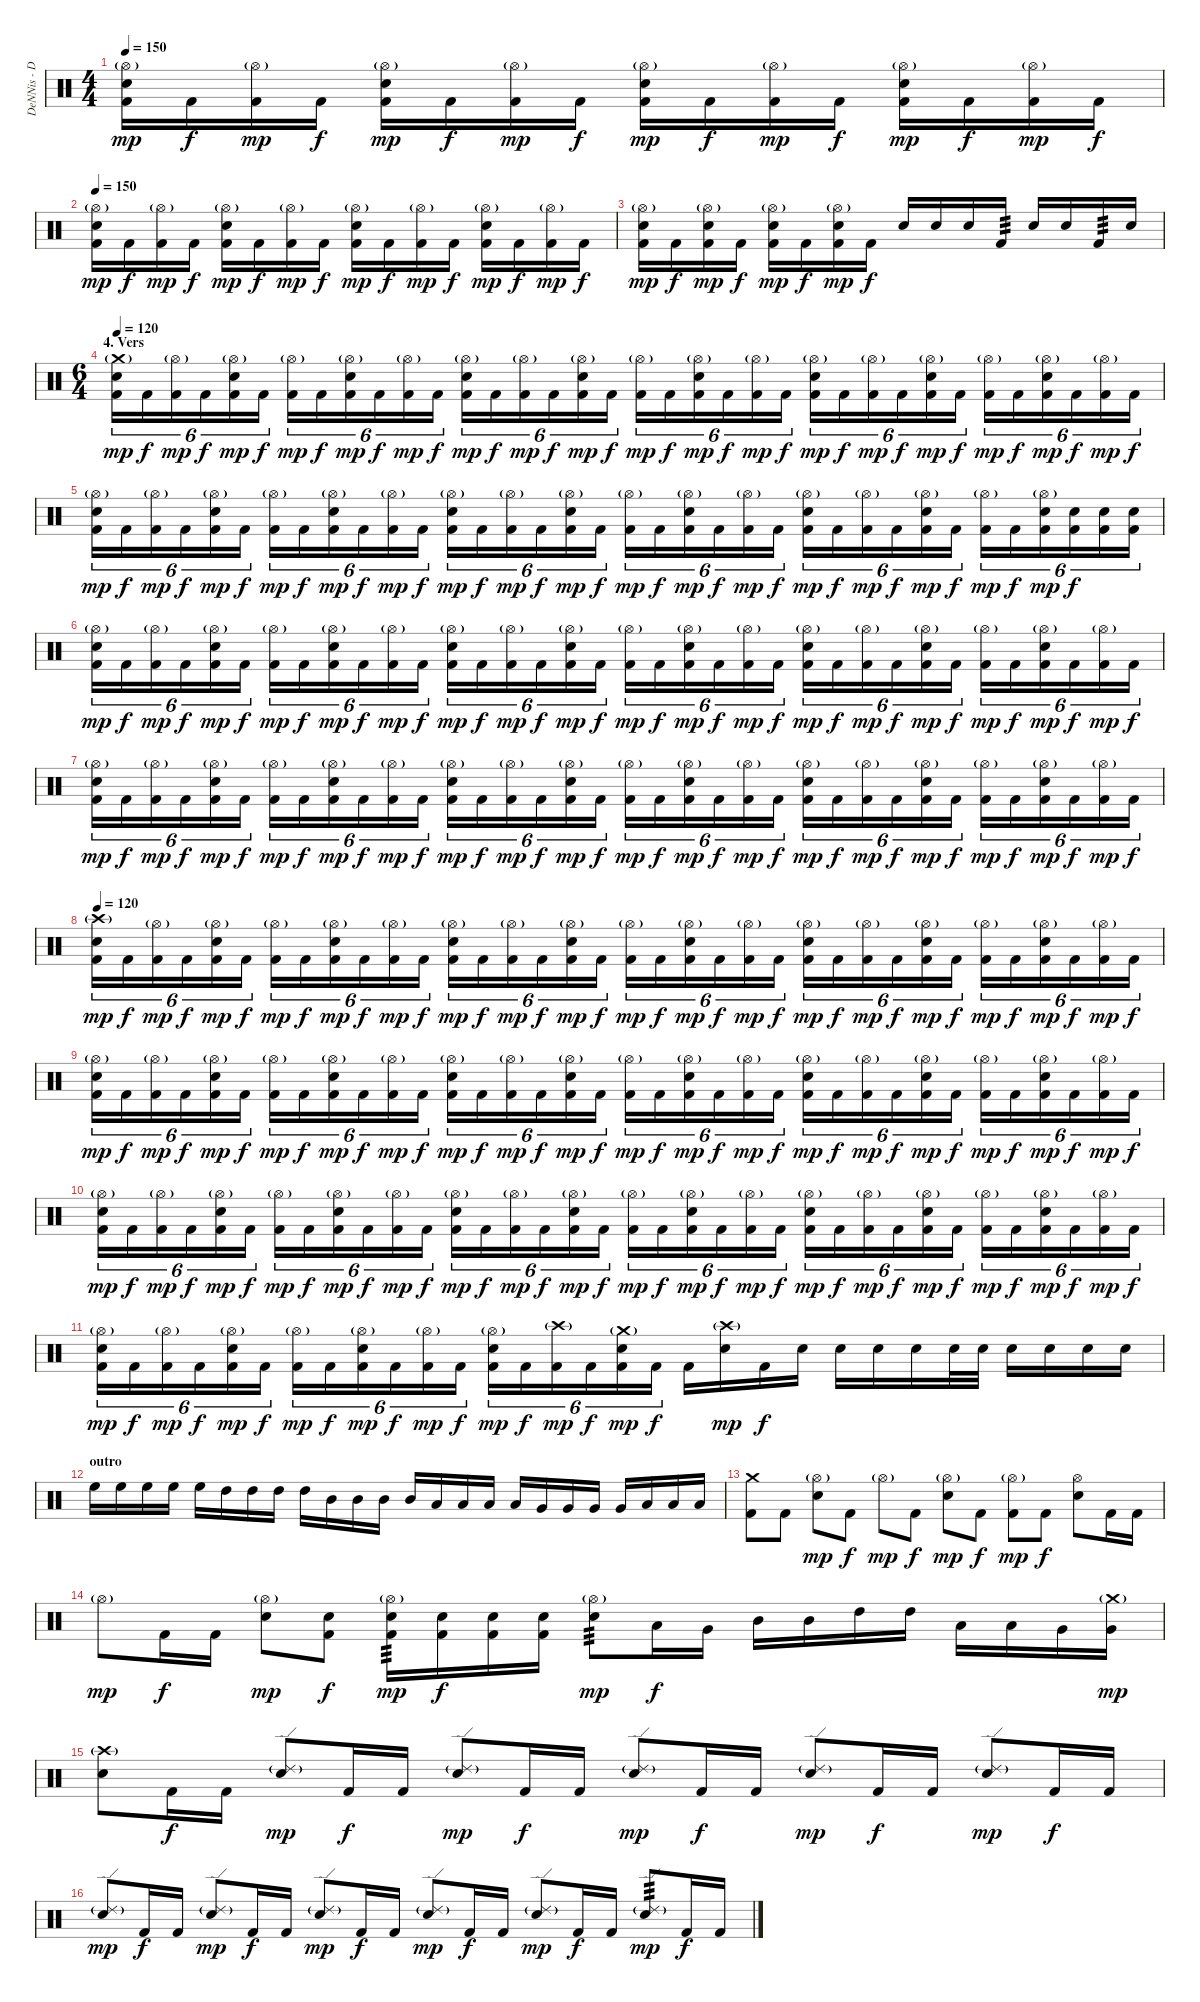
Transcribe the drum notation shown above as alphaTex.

\track ("DeNNis - Drums" "DeNNis - D") {instrument percussion}
\staff {score}
\articulation defaults
\ts (4 4)
\tempo 150
\clef neutral
\ks c
("Hi-Hat (open)"{g} "Electric Snare (hit)" "Kick (hit) 2").16{dy mp} "Kick (hit) 2".16{dy f} ("Hi-Hat (open)"{g} "Kick (hit) 2").16{dy mp} "Kick (hit) 2".16{dy f} ("Hi-Hat (open)"{g} "Electric Snare (hit)" "Kick (hit) 2").16{dy mp} "Kick (hit) 2".16{dy f} ("Hi-Hat (open)"{g} "Kick (hit) 2").16{dy mp} "Kick (hit) 2".16{dy f} ("Hi-Hat (open)"{g} "Electric Snare (hit)" "Kick (hit) 2").16{dy mp} "Kick (hit) 2".16{dy f} ("Hi-Hat (open)"{g} "Kick (hit) 2").16{dy mp} "Kick (hit) 2".16{dy f} ("Hi-Hat (open)"{g} "Electric Snare (hit)" "Kick (hit) 2").16{dy mp} "Kick (hit) 2".16{dy f} ("Hi-Hat (open)"{g} "Kick (hit) 2").16{dy mp} "Kick (hit) 2".16{dy f} |
\tempo 150
("Hi-Hat (open)"{g} "Electric Snare (hit)" "Kick (hit) 2").16{dy mp} "Kick (hit) 2".16{dy f} ("Hi-Hat (open)"{g} "Kick (hit) 2").16{dy mp} "Kick (hit) 2".16{dy f} ("Hi-Hat (open)"{g} "Electric Snare (hit)" "Kick (hit) 2").16{dy mp} "Kick (hit) 2".16{dy f} ("Hi-Hat (open)"{g} "Kick (hit) 2").16{dy mp} "Kick (hit) 2".16{dy f} ("Hi-Hat (open)"{g} "Electric Snare (hit)" "Kick (hit) 2").16{dy mp} "Kick (hit) 2".16{dy f} ("Hi-Hat (open)"{g} "Kick (hit) 2").16{dy mp} "Kick (hit) 2".16{dy f} ("Hi-Hat (open)"{g} "Electric Snare (hit)" "Kick (hit) 2").16{dy mp} "Kick (hit) 2".16{dy f} ("Hi-Hat (open)"{g} "Kick (hit) 2").16{dy mp} "Kick (hit) 2".16{dy f} |
("Hi-Hat (open)"{g} "Electric Snare (hit)" "Kick (hit) 2").16{dy mp} "Kick (hit) 2".16{dy f} ("Hi-Hat (open)"{g} "Electric Snare (hit)" "Kick (hit) 2").16{dy mp} "Kick (hit) 2".16{dy f} ("Hi-Hat (open)"{g} "Electric Snare (hit)" "Kick (hit) 2").16{dy mp} "Kick (hit) 2".16{dy f} ("Hi-Hat (open)"{g} "Electric Snare (hit)" "Kick (hit) 2").16{dy mp} "Kick (hit) 2".16{dy f} "Electric Snare (hit)".16 "Electric Snare (hit)".16 "Electric Snare (hit)".16 "Kick (hit) 2".16{tp 3} "Electric Snare (hit)".16 "Electric Snare (hit)".16 "Kick (hit) 2".16{tp 3} "Electric Snare (hit)".16 |
\ts (6 4)
\section ("" "4. Vers")
\tempo 120
("Crash medium (hit)"{g} "Electric Snare (hit)" "Kick (hit) 2").16{tu (6 4) dy mp} "Kick (hit) 2".16{tu (6 4) dy f} ("Hi-Hat (open)"{g} "Kick (hit) 2").16{tu (6 4) dy mp} "Kick (hit) 2".16{tu (6 4) dy f} ("Hi-Hat (open)"{g} "Electric Snare (hit)" "Kick (hit) 2").16{tu (6 4) dy mp} "Kick (hit) 2".16{tu (6 4) dy f} ("Hi-Hat (open)"{g} "Kick (hit) 2").16{tu (6 4) dy mp} "Kick (hit) 2".16{tu (6 4) dy f} ("Hi-Hat (open)"{g} "Electric Snare (hit)" "Kick (hit) 2").16{tu (6 4) dy mp} "Kick (hit) 2".16{tu (6 4) dy f} ("Hi-Hat (open)"{g} "Kick (hit) 2").16{tu (6 4) dy mp} "Kick (hit) 2".16{tu (6 4) dy f} ("Hi-Hat (open)"{g} "Electric Snare (hit)" "Kick (hit) 2").16{tu (6 4) dy mp} "Kick (hit) 2".16{tu (6 4) dy f} ("Hi-Hat (open)"{g} "Kick (hit) 2").16{tu (6 4) dy mp} "Kick (hit) 2".16{tu (6 4) dy f} ("Hi-Hat (open)"{g} "Electric Snare (hit)" "Kick (hit) 2").16{tu (6 4) dy mp} "Kick (hit) 2".16{tu (6 4) dy f} ("Hi-Hat (open)"{g} "Kick (hit) 2").16{tu (6 4) dy mp} "Kick (hit) 2".16{tu (6 4) dy f} ("Hi-Hat (open)"{g} "Electric Snare (hit)" "Kick (hit) 2").16{tu (6 4) dy mp} "Kick (hit) 2".16{tu (6 4) dy f} ("Hi-Hat (open)"{g} "Kick (hit) 2").16{tu (6 4) dy mp} "Kick (hit) 2".16{tu (6 4) dy f} ("Hi-Hat (open)"{g} "Electric Snare (hit)" "Kick (hit) 2").16{tu (6 4) dy mp} "Kick (hit) 2".16{tu (6 4) dy f} ("Hi-Hat (open)"{g} "Kick (hit) 2").16{tu (6 4) dy mp} "Kick (hit) 2".16{tu (6 4) dy f} ("Hi-Hat (open)"{g} "Electric Snare (hit)" "Kick (hit) 2").16{tu (6 4) dy mp} "Kick (hit) 2".16{tu (6 4) dy f} ("Hi-Hat (open)"{g} "Kick (hit) 2").16{tu (6 4) dy mp} "Kick (hit) 2".16{tu (6 4) dy f} ("Hi-Hat (open)"{g} "Electric Snare (hit)" "Kick (hit) 2").16{tu (6 4) dy mp} "Kick (hit) 2".16{tu (6 4) dy f} ("Hi-Hat (open)"{g} "Kick (hit) 2").16{tu (6 4) dy mp} "Kick (hit) 2".16{tu (6 4) dy f} |
("Hi-Hat (open)"{g} "Electric Snare (hit)" "Kick (hit) 2").16{tu (6 4) dy mp} "Kick (hit) 2".16{tu (6 4) dy f} ("Hi-Hat (open)"{g} "Kick (hit) 2").16{tu (6 4) dy mp} "Kick (hit) 2".16{tu (6 4) dy f} ("Hi-Hat (open)"{g} "Electric Snare (hit)" "Kick (hit) 2").16{tu (6 4) dy mp} "Kick (hit) 2".16{tu (6 4) dy f} ("Hi-Hat (open)"{g} "Kick (hit) 2").16{tu (6 4) dy mp} "Kick (hit) 2".16{tu (6 4) dy f} ("Hi-Hat (open)"{g} "Electric Snare (hit)" "Kick (hit) 2").16{tu (6 4) dy mp} "Kick (hit) 2".16{tu (6 4) dy f} ("Hi-Hat (open)"{g} "Kick (hit) 2").16{tu (6 4) dy mp} "Kick (hit) 2".16{tu (6 4) dy f} ("Hi-Hat (open)"{g} "Electric Snare (hit)" "Kick (hit) 2").16{tu (6 4) dy mp} "Kick (hit) 2".16{tu (6 4) dy f} ("Hi-Hat (open)"{g} "Kick (hit) 2").16{tu (6 4) dy mp} "Kick (hit) 2".16{tu (6 4) dy f} ("Hi-Hat (open)"{g} "Electric Snare (hit)" "Kick (hit) 2").16{tu (6 4) dy mp} "Kick (hit) 2".16{tu (6 4) dy f} ("Hi-Hat (open)"{g} "Kick (hit) 2").16{tu (6 4) dy mp} "Kick (hit) 2".16{tu (6 4) dy f} ("Hi-Hat (open)"{g} "Electric Snare (hit)" "Kick (hit) 2").16{tu (6 4) dy mp} "Kick (hit) 2".16{tu (6 4) dy f} ("Hi-Hat (open)"{g} "Kick (hit) 2").16{tu (6 4) dy mp} "Kick (hit) 2".16{tu (6 4) dy f} ("Hi-Hat (open)"{g} "Electric Snare (hit)" "Kick (hit) 2").16{tu (6 4) dy mp} "Kick (hit) 2".16{tu (6 4) dy f} ("Hi-Hat (open)"{g} "Kick (hit) 2").16{tu (6 4) dy mp} "Kick (hit) 2".16{tu (6 4) dy f} ("Hi-Hat (open)"{g} "Electric Snare (hit)" "Kick (hit) 2").16{tu (6 4) dy mp} "Kick (hit) 2".16{tu (6 4) dy f} ("Hi-Hat (open)"{g} "Kick (hit) 2").16{tu (6 4) dy mp} "Kick (hit) 2".16{tu (6 4) dy f} ("Hi-Hat (open)"{g} "Electric Snare (hit)" "Kick (hit) 2").16{tu (6 4) dy mp} ("Electric Snare (hit)" "Kick (hit) 2").16{tu (6 4) dy f} ("Electric Snare (hit)" "Kick (hit) 2").16{tu (6 4)} ("Electric Snare (hit)" "Kick (hit) 2").16{tu (6 4)} |
("Hi-Hat (open)"{g} "Electric Snare (hit)" "Kick (hit) 2").16{tu (6 4) dy mp} "Kick (hit) 2".16{tu (6 4) dy f} ("Hi-Hat (open)"{g} "Kick (hit) 2").16{tu (6 4) dy mp} "Kick (hit) 2".16{tu (6 4) dy f} ("Hi-Hat (open)"{g} "Electric Snare (hit)" "Kick (hit) 2").16{tu (6 4) dy mp} "Kick (hit) 2".16{tu (6 4) dy f} ("Hi-Hat (open)"{g} "Kick (hit) 2").16{tu (6 4) dy mp} "Kick (hit) 2".16{tu (6 4) dy f} ("Hi-Hat (open)"{g} "Electric Snare (hit)" "Kick (hit) 2").16{tu (6 4) dy mp} "Kick (hit) 2".16{tu (6 4) dy f} ("Hi-Hat (open)"{g} "Kick (hit) 2").16{tu (6 4) dy mp} "Kick (hit) 2".16{tu (6 4) dy f} ("Hi-Hat (open)"{g} "Electric Snare (hit)" "Kick (hit) 2").16{tu (6 4) dy mp} "Kick (hit) 2".16{tu (6 4) dy f} ("Hi-Hat (open)"{g} "Kick (hit) 2").16{tu (6 4) dy mp} "Kick (hit) 2".16{tu (6 4) dy f} ("Hi-Hat (open)"{g} "Electric Snare (hit)" "Kick (hit) 2").16{tu (6 4) dy mp} "Kick (hit) 2".16{tu (6 4) dy f} ("Hi-Hat (open)"{g} "Kick (hit) 2").16{tu (6 4) dy mp} "Kick (hit) 2".16{tu (6 4) dy f} ("Hi-Hat (open)"{g} "Electric Snare (hit)" "Kick (hit) 2").16{tu (6 4) dy mp} "Kick (hit) 2".16{tu (6 4) dy f} ("Hi-Hat (open)"{g} "Kick (hit) 2").16{tu (6 4) dy mp} "Kick (hit) 2".16{tu (6 4) dy f} ("Hi-Hat (open)"{g} "Electric Snare (hit)" "Kick (hit) 2").16{tu (6 4) dy mp} "Kick (hit) 2".16{tu (6 4) dy f} ("Hi-Hat (open)"{g} "Kick (hit) 2").16{tu (6 4) dy mp} "Kick (hit) 2".16{tu (6 4) dy f} ("Hi-Hat (open)"{g} "Electric Snare (hit)" "Kick (hit) 2").16{tu (6 4) dy mp} "Kick (hit) 2".16{tu (6 4) dy f} ("Hi-Hat (open)"{g} "Kick (hit) 2").16{tu (6 4) dy mp} "Kick (hit) 2".16{tu (6 4) dy f} ("Hi-Hat (open)"{g} "Electric Snare (hit)" "Kick (hit) 2").16{tu (6 4) dy mp} "Kick (hit) 2".16{tu (6 4) dy f} ("Hi-Hat (open)"{g} "Kick (hit) 2").16{tu (6 4) dy mp} "Kick (hit) 2".16{tu (6 4) dy f} |
("Hi-Hat (open)"{g} "Electric Snare (hit)" "Kick (hit) 2").16{tu (6 4) dy mp} "Kick (hit) 2".16{tu (6 4) dy f} ("Hi-Hat (open)"{g} "Kick (hit) 2").16{tu (6 4) dy mp} "Kick (hit) 2".16{tu (6 4) dy f} ("Hi-Hat (open)"{g} "Electric Snare (hit)" "Kick (hit) 2").16{tu (6 4) dy mp} "Kick (hit) 2".16{tu (6 4) dy f} ("Hi-Hat (open)"{g} "Kick (hit) 2").16{tu (6 4) dy mp} "Kick (hit) 2".16{tu (6 4) dy f} ("Hi-Hat (open)"{g} "Electric Snare (hit)" "Kick (hit) 2").16{tu (6 4) dy mp} "Kick (hit) 2".16{tu (6 4) dy f} ("Hi-Hat (open)"{g} "Kick (hit) 2").16{tu (6 4) dy mp} "Kick (hit) 2".16{tu (6 4) dy f} ("Hi-Hat (open)"{g} "Electric Snare (hit)" "Kick (hit) 2").16{tu (6 4) dy mp} "Kick (hit) 2".16{tu (6 4) dy f} ("Hi-Hat (open)"{g} "Kick (hit) 2").16{tu (6 4) dy mp} "Kick (hit) 2".16{tu (6 4) dy f} ("Hi-Hat (open)"{g} "Electric Snare (hit)" "Kick (hit) 2").16{tu (6 4) dy mp} "Kick (hit) 2".16{tu (6 4) dy f} ("Hi-Hat (open)"{g} "Kick (hit) 2").16{tu (6 4) dy mp} "Kick (hit) 2".16{tu (6 4) dy f} ("Hi-Hat (open)"{g} "Electric Snare (hit)" "Kick (hit) 2").16{tu (6 4) dy mp} "Kick (hit) 2".16{tu (6 4) dy f} ("Hi-Hat (open)"{g} "Kick (hit) 2").16{tu (6 4) dy mp} "Kick (hit) 2".16{tu (6 4) dy f} ("Hi-Hat (open)"{g} "Electric Snare (hit)" "Kick (hit) 2").16{tu (6 4) dy mp} "Kick (hit) 2".16{tu (6 4) dy f} ("Hi-Hat (open)"{g} "Kick (hit) 2").16{tu (6 4) dy mp} "Kick (hit) 2".16{tu (6 4) dy f} ("Hi-Hat (open)"{g} "Electric Snare (hit)" "Kick (hit) 2").16{tu (6 4) dy mp} "Kick (hit) 2".16{tu (6 4) dy f} ("Hi-Hat (open)"{g} "Kick (hit) 2").16{tu (6 4) dy mp} "Kick (hit) 2".16{tu (6 4) dy f} ("Hi-Hat (open)"{g} "Electric Snare (hit)" "Kick (hit) 2").16{tu (6 4) dy mp} "Kick (hit) 2".16{tu (6 4) dy f} ("Hi-Hat (open)"{g} "Kick (hit) 2").16{tu (6 4) dy mp} "Kick (hit) 2".16{tu (6 4) dy f} |
\tempo 120
("Crash high (hit)"{g} "Electric Snare (hit)" "Kick (hit) 2").16{tu (6 4) dy mp} "Kick (hit) 2".16{tu (6 4) dy f} ("Hi-Hat (open)"{g} "Kick (hit) 2").16{tu (6 4) dy mp} "Kick (hit) 2".16{tu (6 4) dy f} ("Hi-Hat (open)"{g} "Electric Snare (hit)" "Kick (hit) 2").16{tu (6 4) dy mp} "Kick (hit) 2".16{tu (6 4) dy f} ("Hi-Hat (open)"{g} "Kick (hit) 2").16{tu (6 4) dy mp} "Kick (hit) 2".16{tu (6 4) dy f} ("Hi-Hat (open)"{g} "Electric Snare (hit)" "Kick (hit) 2").16{tu (6 4) dy mp} "Kick (hit) 2".16{tu (6 4) dy f} ("Hi-Hat (open)"{g} "Kick (hit) 2").16{tu (6 4) dy mp} "Kick (hit) 2".16{tu (6 4) dy f} ("Hi-Hat (open)"{g} "Electric Snare (hit)" "Kick (hit) 2").16{tu (6 4) dy mp} "Kick (hit) 2".16{tu (6 4) dy f} ("Hi-Hat (open)"{g} "Kick (hit) 2").16{tu (6 4) dy mp} "Kick (hit) 2".16{tu (6 4) dy f} ("Hi-Hat (open)"{g} "Electric Snare (hit)" "Kick (hit) 2").16{tu (6 4) dy mp} "Kick (hit) 2".16{tu (6 4) dy f} ("Hi-Hat (open)"{g} "Kick (hit) 2").16{tu (6 4) dy mp} "Kick (hit) 2".16{tu (6 4) dy f} ("Hi-Hat (open)"{g} "Electric Snare (hit)" "Kick (hit) 2").16{tu (6 4) dy mp} "Kick (hit) 2".16{tu (6 4) dy f} ("Hi-Hat (open)"{g} "Kick (hit) 2").16{tu (6 4) dy mp} "Kick (hit) 2".16{tu (6 4) dy f} ("Hi-Hat (open)"{g} "Electric Snare (hit)" "Kick (hit) 2").16{tu (6 4) dy mp} "Kick (hit) 2".16{tu (6 4) dy f} ("Hi-Hat (open)"{g} "Kick (hit) 2").16{tu (6 4) dy mp} "Kick (hit) 2".16{tu (6 4) dy f} ("Hi-Hat (open)"{g} "Electric Snare (hit)" "Kick (hit) 2").16{tu (6 4) dy mp} "Kick (hit) 2".16{tu (6 4) dy f} ("Hi-Hat (open)"{g} "Kick (hit) 2").16{tu (6 4) dy mp} "Kick (hit) 2".16{tu (6 4) dy f} ("Hi-Hat (open)"{g} "Electric Snare (hit)" "Kick (hit) 2").16{tu (6 4) dy mp} "Kick (hit) 2".16{tu (6 4) dy f} ("Hi-Hat (open)"{g} "Kick (hit) 2").16{tu (6 4) dy mp} "Kick (hit) 2".16{tu (6 4) dy f} |
("Hi-Hat (open)"{g} "Electric Snare (hit)" "Kick (hit) 2").16{tu (6 4) dy mp} "Kick (hit) 2".16{tu (6 4) dy f} ("Hi-Hat (open)"{g} "Kick (hit) 2").16{tu (6 4) dy mp} "Kick (hit) 2".16{tu (6 4) dy f} ("Hi-Hat (open)"{g} "Electric Snare (hit)" "Kick (hit) 2").16{tu (6 4) dy mp} "Kick (hit) 2".16{tu (6 4) dy f} ("Hi-Hat (open)"{g} "Kick (hit) 2").16{tu (6 4) dy mp} "Kick (hit) 2".16{tu (6 4) dy f} ("Hi-Hat (open)"{g} "Electric Snare (hit)" "Kick (hit) 2").16{tu (6 4) dy mp} "Kick (hit) 2".16{tu (6 4) dy f} ("Hi-Hat (open)"{g} "Kick (hit) 2").16{tu (6 4) dy mp} "Kick (hit) 2".16{tu (6 4) dy f} ("Hi-Hat (open)"{g} "Electric Snare (hit)" "Kick (hit) 2").16{tu (6 4) dy mp} "Kick (hit) 2".16{tu (6 4) dy f} ("Hi-Hat (open)"{g} "Kick (hit) 2").16{tu (6 4) dy mp} "Kick (hit) 2".16{tu (6 4) dy f} ("Hi-Hat (open)"{g} "Electric Snare (hit)" "Kick (hit) 2").16{tu (6 4) dy mp} "Kick (hit) 2".16{tu (6 4) dy f} ("Hi-Hat (open)"{g} "Kick (hit) 2").16{tu (6 4) dy mp} "Kick (hit) 2".16{tu (6 4) dy f} ("Hi-Hat (open)"{g} "Electric Snare (hit)" "Kick (hit) 2").16{tu (6 4) dy mp} "Kick (hit) 2".16{tu (6 4) dy f} ("Hi-Hat (open)"{g} "Kick (hit) 2").16{tu (6 4) dy mp} "Kick (hit) 2".16{tu (6 4) dy f} ("Hi-Hat (open)"{g} "Electric Snare (hit)" "Kick (hit) 2").16{tu (6 4) dy mp} "Kick (hit) 2".16{tu (6 4) dy f} ("Hi-Hat (open)"{g} "Kick (hit) 2").16{tu (6 4) dy mp} "Kick (hit) 2".16{tu (6 4) dy f} ("Hi-Hat (open)"{g} "Electric Snare (hit)" "Kick (hit) 2").16{tu (6 4) dy mp} "Kick (hit) 2".16{tu (6 4) dy f} ("Hi-Hat (open)"{g} "Kick (hit) 2").16{tu (6 4) dy mp} "Kick (hit) 2".16{tu (6 4) dy f} ("Hi-Hat (open)"{g} "Electric Snare (hit)" "Kick (hit) 2").16{tu (6 4) dy mp} "Kick (hit) 2".16{tu (6 4) dy f} ("Hi-Hat (open)"{g} "Kick (hit) 2").16{tu (6 4) dy mp} "Kick (hit) 2".16{tu (6 4) dy f} |
("Hi-Hat (open)"{g} "Electric Snare (hit)" "Kick (hit) 2").16{tu (6 4) dy mp} "Kick (hit) 2".16{tu (6 4) dy f} ("Hi-Hat (open)"{g} "Kick (hit) 2").16{tu (6 4) dy mp} "Kick (hit) 2".16{tu (6 4) dy f} ("Hi-Hat (open)"{g} "Electric Snare (hit)" "Kick (hit) 2").16{tu (6 4) dy mp} "Kick (hit) 2".16{tu (6 4) dy f} ("Hi-Hat (open)"{g} "Kick (hit) 2").16{tu (6 4) dy mp} "Kick (hit) 2".16{tu (6 4) dy f} ("Hi-Hat (open)"{g} "Electric Snare (hit)" "Kick (hit) 2").16{tu (6 4) dy mp} "Kick (hit) 2".16{tu (6 4) dy f} ("Hi-Hat (open)"{g} "Kick (hit) 2").16{tu (6 4) dy mp} "Kick (hit) 2".16{tu (6 4) dy f} ("Hi-Hat (open)"{g} "Electric Snare (hit)" "Kick (hit) 2").16{tu (6 4) dy mp} "Kick (hit) 2".16{tu (6 4) dy f} ("Hi-Hat (open)"{g} "Kick (hit) 2").16{tu (6 4) dy mp} "Kick (hit) 2".16{tu (6 4) dy f} ("Hi-Hat (open)"{g} "Electric Snare (hit)" "Kick (hit) 2").16{tu (6 4) dy mp} "Kick (hit) 2".16{tu (6 4) dy f} ("Hi-Hat (open)"{g} "Kick (hit) 2").16{tu (6 4) dy mp} "Kick (hit) 2".16{tu (6 4) dy f} ("Hi-Hat (open)"{g} "Electric Snare (hit)" "Kick (hit) 2").16{tu (6 4) dy mp} "Kick (hit) 2".16{tu (6 4) dy f} ("Hi-Hat (open)"{g} "Kick (hit) 2").16{tu (6 4) dy mp} "Kick (hit) 2".16{tu (6 4) dy f} ("Hi-Hat (open)"{g} "Electric Snare (hit)" "Kick (hit) 2").16{tu (6 4) dy mp} "Kick (hit) 2".16{tu (6 4) dy f} ("Hi-Hat (open)"{g} "Kick (hit) 2").16{tu (6 4) dy mp} "Kick (hit) 2".16{tu (6 4) dy f} ("Hi-Hat (open)"{g} "Electric Snare (hit)" "Kick (hit) 2").16{tu (6 4) dy mp} "Kick (hit) 2".16{tu (6 4) dy f} ("Hi-Hat (open)"{g} "Kick (hit) 2").16{tu (6 4) dy mp} "Kick (hit) 2".16{tu (6 4) dy f} ("Hi-Hat (open)"{g} "Electric Snare (hit)" "Kick (hit) 2").16{tu (6 4) dy mp} "Kick (hit) 2".16{tu (6 4) dy f} ("Hi-Hat (open)"{g} "Kick (hit) 2").16{tu (6 4) dy mp} "Kick (hit) 2".16{tu (6 4) dy f} |
("Hi-Hat (open)"{g} "Electric Snare (hit)" "Kick (hit) 2").16{tu (6 4) dy mp} "Kick (hit) 2".16{tu (6 4) dy f} ("Hi-Hat (open)"{g} "Kick (hit) 2").16{tu (6 4) dy mp} "Kick (hit) 2".16{tu (6 4) dy f} ("Hi-Hat (open)"{g} "Electric Snare (hit)" "Kick (hit) 2").16{tu (6 4) dy mp} "Kick (hit) 2".16{tu (6 4) dy f} ("Hi-Hat (open)"{g} "Kick (hit) 2").16{tu (6 4) dy mp} "Kick (hit) 2".16{tu (6 4) dy f} ("Hi-Hat (open)"{g} "Electric Snare (hit)" "Kick (hit) 2").16{tu (6 4) dy mp} "Kick (hit) 2".16{tu (6 4) dy f} ("Hi-Hat (open)"{g} "Kick (hit) 2").16{tu (6 4) dy mp} "Kick (hit) 2".16{tu (6 4) dy f} ("Hi-Hat (open)"{g} "Electric Snare (hit)" "Kick (hit) 2").16{tu (6 4) dy mp} "Kick (hit) 2".16{tu (6 4) dy f} ("Crash high (hit)"{g} "Kick (hit) 2").16{tu (6 4) dy mp} "Kick (hit) 2".16{tu (6 4) dy f} ("Crash medium (hit)"{g} "Electric Snare (hit)" "Kick (hit) 2").16{tu (6 4) dy mp} "Kick (hit) 2".16{tu (6 4) dy f} "Kick (hit) 2".16 ("Crash high (hit)"{g} "Electric Snare (hit)").16{dy mp} "Kick (hit) 2".16{dy f} "Electric Snare (hit)".16 "Electric Snare (hit)".16 "Electric Snare (hit)".16 "Electric Snare (hit)".16 "Electric Snare (hit)".32 "Electric Snare (hit)".32 "Electric Snare (hit)".16 "Electric Snare (hit)".16 "Electric Snare (hit)".16 "Electric Snare (hit)".16 |
\section ("" "outro")
"High Floor Tom (hit)".16 "High Floor Tom (hit)".16 "High Floor Tom (hit)".16 "High Floor Tom (hit)".16 "High Floor Tom (hit)".16 "High Tom (hit)".16 "High Tom (hit)".16 "High Tom (hit)".16 "High Tom (hit)".16 "Mid Tom (hit)".16 "Mid Tom (hit)".16 "Mid Tom (hit)".16 "Mid Tom (hit)".16 "Low Tom (hit)".16 "Low Tom (hit)".16 "Low Tom (hit)".16 "Low Tom (hit)".16 "Very Low Tom (hit)".16 "Very Low Tom (hit)".16 "Very Low Tom (hit)".16 "Very Low Tom (hit)".16 "Low Floor Tom (hit)".16 "Low Floor Tom (hit)".16 "Low Floor Tom (hit)".16 |
("Crash medium (hit)" "Kick (hit) 2").8 "Kick (hit) 2".8 ("Hi-Hat (open)"{g} "Electric Snare (hit)").8{dy mp} "Kick (hit) 2".8{dy f} "Hi-Hat (open)"{g}.8{dy mp} "Kick (hit) 2".8{dy f} ("Hi-Hat (open)"{g} "Electric Snare (hit)").8{dy mp} "Kick (hit) 2".8{dy f} ("Hi-Hat (open)"{g} "Kick (hit) 2").8{dy mp} "Kick (hit) 2".8{dy f} ("Hi-Hat (open)" "Electric Snare (hit)").8 "Kick (hit) 2".16 "Kick (hit) 2".16 |
"Hi-Hat (open)"{g}.8{dy mp} "Kick (hit) 2".16{dy f} "Kick (hit) 2".16 ("Hi-Hat (open)"{g} "Electric Snare (hit)").8{dy mp} ("Electric Snare (hit)" "Kick (hit) 2").8{dy f} ("Hi-Hat (open)"{g} "Electric Snare (hit)" "Kick (hit) 2").16{tp 3 dy mp} ("Electric Snare (hit)" "Kick (hit) 2").16{dy f} ("Electric Snare (hit)" "Kick (hit) 2").16 ("Electric Snare (hit)" "Kick (hit) 2").16 ("Hi-Hat (open)"{g} "Electric Snare (hit)").8{tp 3 dy mp} "Low Floor Tom (hit)".16{dy f} "Very Low Tom (hit)".16 "Mid Tom (hit)".16 "Mid Tom (hit)".16 "High Tom (hit)".16 "High Tom (hit)".16 "Low Tom (hit)".16 "Low Tom (hit)".16 "Very Low Tom (hit)".16 ("Crash medium (hit)"{g} "Very Low Tom (hit)").16{dy mp} |
("Crash high (hit)"{g} "Electric Snare (hit)").8 "Kick (hit) 2".16{dy f} "Kick (hit) 2".16 ("Ride (edge) 2"{g} "Electric Snare (hit)").8{dy mp} "Kick (hit) 2".16{dy f} "Kick (hit) 2".16 ("Ride (edge) 2"{g} "Electric Snare (hit)").8{dy mp} "Kick (hit) 2".16{dy f} "Kick (hit) 2".16 ("Ride (edge) 2"{g} "Electric Snare (hit)").8{dy mp} "Kick (hit) 2".16{dy f} "Kick (hit) 2".16 ("Ride (edge) 2"{g} "Electric Snare (hit)").8{dy mp} "Kick (hit) 2".16{dy f} "Kick (hit) 2".16 ("Ride (edge) 2"{g} "Electric Snare (hit)").8{dy mp} "Kick (hit) 2".16{dy f} "Kick (hit) 2".16 |
("Ride (edge) 2"{g} "Electric Snare (hit)").8{dy mp} "Kick (hit) 2".16{dy f} "Kick (hit) 2".16 ("Ride (edge) 2"{g} "Electric Snare (hit)").8{dy mp} "Kick (hit) 2".16{dy f} "Kick (hit) 2".16 ("Ride (edge) 2"{g} "Electric Snare (hit)").8{dy mp} "Kick (hit) 2".16{dy f} "Kick (hit) 2".16 ("Ride (edge) 2"{g} "Electric Snare (hit)").8{dy mp} "Kick (hit) 2".16{dy f} "Kick (hit) 2".16 ("Ride (edge) 2"{g} "Electric Snare (hit)").8{dy mp} "Kick (hit) 2".16{dy f} "Kick (hit) 2".16 ("Ride (edge) 2"{g} "Electric Snare (hit)").8{tp 3 dy mp} "Kick (hit) 2".16{dy f} "Kick (hit) 2".16
